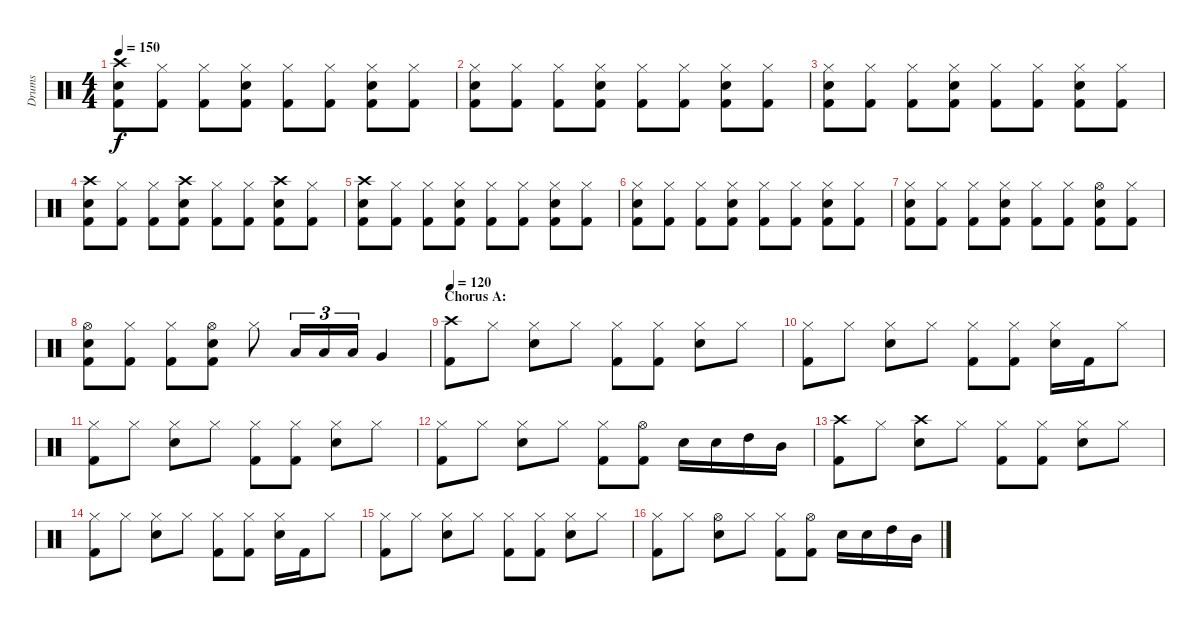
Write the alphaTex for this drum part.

\track ("Drums" "Drums") {instrument percussion}
\staff {score}
\articulation defaults
\ts (4 4)
\tempo 150
\clef neutral
\ks c
("Crash high (hit)" "Electric Snare (hit)" "Kick (hit) 2").8{dy f} ("Hi-Hat (closed)" "Kick (hit) 2").8 ("Hi-Hat (closed)" "Kick (hit) 2").8 ("Hi-Hat (closed)" "Electric Snare (hit)" "Kick (hit) 2").8 ("Hi-Hat (closed)" "Kick (hit) 2").8 ("Hi-Hat (closed)" "Kick (hit) 2").8 ("Hi-Hat (closed)" "Electric Snare (hit)" "Kick (hit) 2").8 ("Hi-Hat (closed)" "Kick (hit) 2").8 |
("Hi-Hat (closed)" "Electric Snare (hit)" "Kick (hit) 2").8 ("Hi-Hat (closed)" "Kick (hit) 2").8 ("Hi-Hat (closed)" "Kick (hit) 2").8 ("Hi-Hat (closed)" "Electric Snare (hit)" "Kick (hit) 2").8 ("Hi-Hat (closed)" "Kick (hit) 2").8 ("Hi-Hat (closed)" "Kick (hit) 2").8 ("Hi-Hat (closed)" "Electric Snare (hit)" "Kick (hit) 2").8 ("Hi-Hat (closed)" "Kick (hit) 2").8 |
("Hi-Hat (closed)" "Electric Snare (hit)" "Kick (hit) 2").8 ("Hi-Hat (closed)" "Kick (hit) 2").8 ("Hi-Hat (closed)" "Kick (hit) 2").8 ("Hi-Hat (closed)" "Electric Snare (hit)" "Kick (hit) 2").8 ("Hi-Hat (closed)" "Kick (hit) 2").8 ("Hi-Hat (closed)" "Kick (hit) 2").8 ("Hi-Hat (closed)" "Electric Snare (hit)" "Kick (hit) 2").8 ("Hi-Hat (closed)" "Kick (hit) 2").8 |
("Crash high (hit)" "Electric Snare (hit)" "Kick (hit) 2").8 ("Hi-Hat (closed)" "Kick (hit) 2").8 ("Hi-Hat (closed)" "Kick (hit) 2").8 ("Crash high (hit)" "Electric Snare (hit)" "Kick (hit) 2").8 ("Hi-Hat (closed)" "Kick (hit) 2").8 ("Hi-Hat (closed)" "Kick (hit) 2").8 ("Crash high (hit)" "Electric Snare (hit)" "Kick (hit) 2").8 ("Hi-Hat (closed)" "Kick (hit) 2").8 |
("Crash high (hit)" "Electric Snare (hit)" "Kick (hit) 2").8 ("Hi-Hat (closed)" "Kick (hit) 2").8 ("Hi-Hat (closed)" "Kick (hit) 2").8 ("Hi-Hat (closed)" "Electric Snare (hit)" "Kick (hit) 2").8 ("Hi-Hat (closed)" "Kick (hit) 2").8 ("Hi-Hat (closed)" "Kick (hit) 2").8 ("Hi-Hat (closed)" "Electric Snare (hit)" "Kick (hit) 2").8 ("Hi-Hat (closed)" "Kick (hit) 2").8 |
("Hi-Hat (closed)" "Electric Snare (hit)" "Kick (hit) 2").8 ("Hi-Hat (closed)" "Kick (hit) 2").8 ("Hi-Hat (closed)" "Kick (hit) 2").8 ("Hi-Hat (closed)" "Electric Snare (hit)" "Kick (hit) 2").8 ("Hi-Hat (closed)" "Kick (hit) 2").8 ("Hi-Hat (closed)" "Kick (hit) 2").8 ("Hi-Hat (closed)" "Electric Snare (hit)" "Kick (hit) 2").8 ("Hi-Hat (closed)" "Kick (hit) 2").8 |
("Hi-Hat (closed)" "Electric Snare (hit)" "Kick (hit) 2").8 ("Hi-Hat (closed)" "Kick (hit) 2").8 ("Hi-Hat (closed)" "Kick (hit) 2").8 ("Hi-Hat (closed)" "Electric Snare (hit)" "Kick (hit) 2").8 ("Hi-Hat (closed)" "Kick (hit) 2").8 ("Hi-Hat (closed)" "Kick (hit) 2").8 ("Hi-Hat (open)" "Electric Snare (hit)" "Kick (hit) 2").8 ("Hi-Hat (closed)" "Kick (hit) 2").8 |
("Hi-Hat (open)" "Electric Snare (hit)" "Kick (hit) 2").8 ("Hi-Hat (closed)" "Kick (hit) 2").8 ("Hi-Hat (closed)" "Kick (hit) 2").8 ("Hi-Hat (open)" "Electric Snare (hit)" "Kick (hit) 2").8 "Hi-Hat (closed)".8 "Low Tom (hit)".16{tu (3 2)} "Low Tom (hit)".16{tu (3 2)} "Low Tom (hit)".16{tu (3 2)} "Very Low Tom (hit)".4 |
\section ("" "Chorus A:")
\tempo 120
("Crash high (hit)" "Kick (hit) 2").8 "Hi-Hat (closed)".8 ("Hi-Hat (closed)" "Electric Snare (hit)").8 "Hi-Hat (closed)".8 ("Hi-Hat (closed)" "Kick (hit) 2").8 ("Hi-Hat (closed)" "Kick (hit) 2").8 ("Hi-Hat (closed)" "Electric Snare (hit)").8 "Hi-Hat (closed)".8 |
("Hi-Hat (closed)" "Kick (hit) 2").8 "Hi-Hat (closed)".8 ("Hi-Hat (closed)" "Electric Snare (hit)").8 "Hi-Hat (closed)".8 ("Hi-Hat (closed)" "Kick (hit) 2").8 ("Hi-Hat (closed)" "Kick (hit) 2").8 ("Hi-Hat (closed)" "Electric Snare (hit)").16 "Kick (hit) 2".16 "Hi-Hat (closed)".8 |
("Hi-Hat (closed)" "Kick (hit) 2").8 "Hi-Hat (closed)".8 ("Hi-Hat (closed)" "Electric Snare (hit)").8 "Hi-Hat (closed)".8 ("Hi-Hat (closed)" "Kick (hit) 2").8 ("Hi-Hat (closed)" "Kick (hit) 2").8 ("Hi-Hat (closed)" "Electric Snare (hit)").8 "Hi-Hat (closed)".8 |
("Hi-Hat (closed)" "Kick (hit) 2").8 "Hi-Hat (closed)".8 ("Hi-Hat (closed)" "Electric Snare (hit)").8 "Hi-Hat (closed)".8 ("Hi-Hat (closed)" "Kick (hit) 2").8 ("Hi-Hat (open)" "Kick (hit) 2").8 "Electric Snare (hit)".16 "Electric Snare (hit)".16 "High Tom (hit)".16 "Mid Tom (hit)".16 |
("Crash high (hit)" "Kick (hit) 2").8 "Hi-Hat (closed)".8 ("Crash high (hit)" "Electric Snare (hit)").8 "Hi-Hat (closed)".8 ("Hi-Hat (closed)" "Kick (hit) 2").8 ("Hi-Hat (closed)" "Kick (hit) 2").8 ("Hi-Hat (closed)" "Electric Snare (hit)").8 "Hi-Hat (closed)".8 |
("Hi-Hat (closed)" "Kick (hit) 2").8 "Hi-Hat (closed)".8 ("Hi-Hat (closed)" "Electric Snare (hit)").8 "Hi-Hat (closed)".8 ("Hi-Hat (closed)" "Kick (hit) 2").8 ("Hi-Hat (closed)" "Kick (hit) 2").8 ("Hi-Hat (closed)" "Electric Snare (hit)").16 "Kick (hit) 2".16 "Hi-Hat (closed)".8 |
("Hi-Hat (closed)" "Kick (hit) 2").8 "Hi-Hat (closed)".8 ("Hi-Hat (closed)" "Electric Snare (hit)").8 "Hi-Hat (closed)".8 ("Hi-Hat (closed)" "Kick (hit) 2").8 ("Hi-Hat (closed)" "Kick (hit) 2").8 ("Hi-Hat (closed)" "Electric Snare (hit)").8 "Hi-Hat (closed)".8 |
("Hi-Hat (closed)" "Kick (hit) 2").8 "Hi-Hat (closed)".8 ("Hi-Hat (open)" "Electric Snare (hit)").8 "Hi-Hat (closed)".8 ("Hi-Hat (closed)" "Kick (hit) 2").8 ("Hi-Hat (open)" "Kick (hit) 2").8 "Electric Snare (hit)".16 "Electric Snare (hit)".16 "High Tom (hit)".16 "Mid Tom (hit)".16
